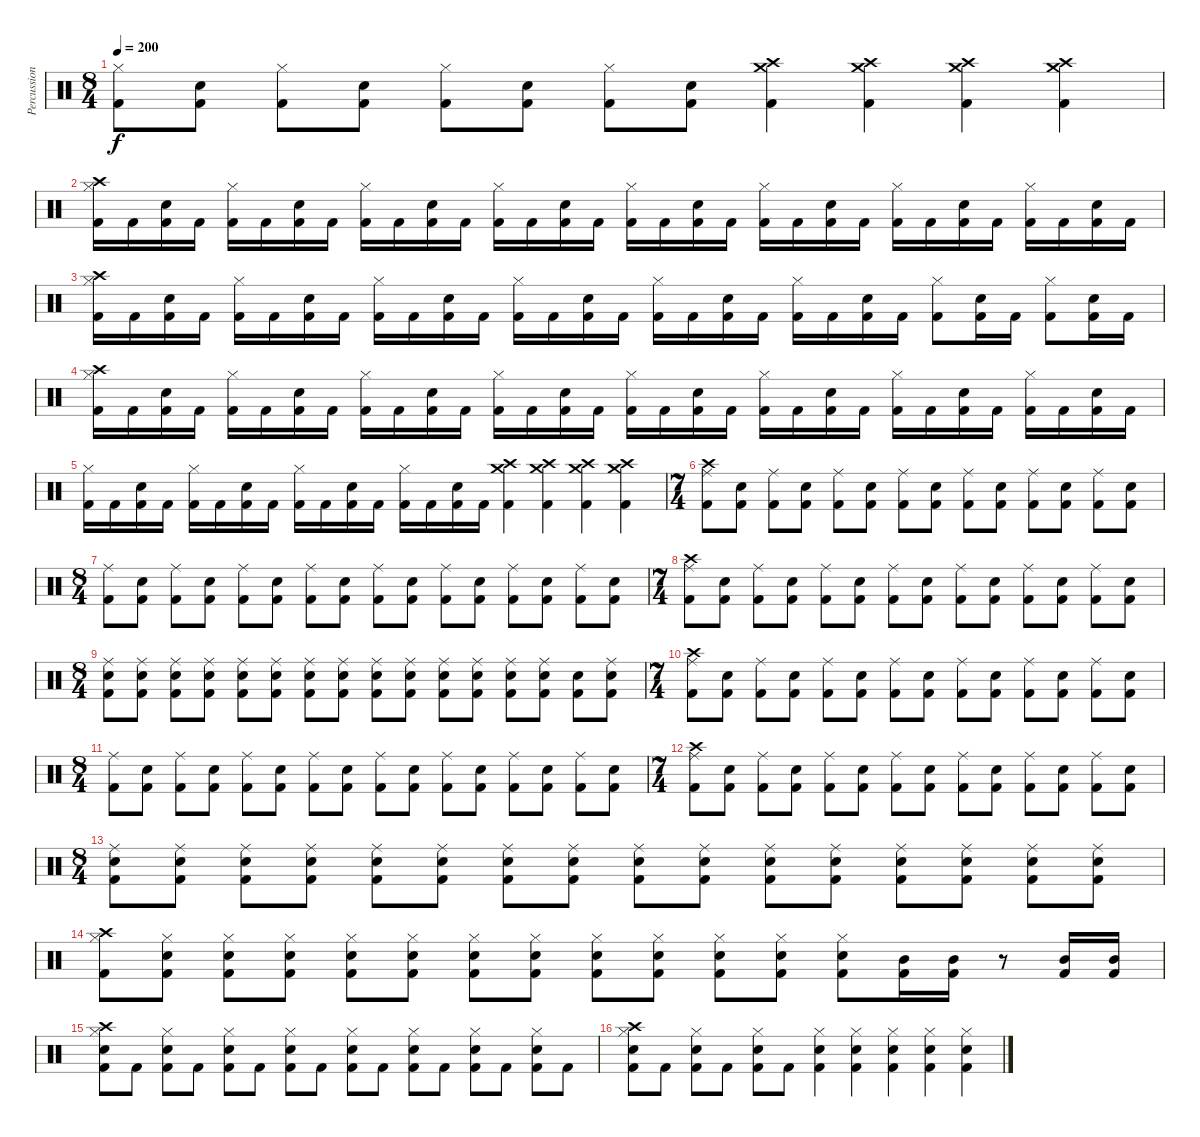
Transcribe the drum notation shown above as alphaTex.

\track ("Percussion" "Percussion") {instrument percussion}
\staff {score}
\articulation defaults
\ts (8 4)
\tempo 200
\clef neutral
\ks c
("Hi-Hat (closed)" "Kick (hit) 2").8{dy f} ("Electric Snare (hit)" "Kick (hit) 2").8 ("Hi-Hat (closed)" "Kick (hit) 2").8 ("Electric Snare (hit)" "Kick (hit) 2").8 ("Hi-Hat (closed)" "Kick (hit) 2").8 ("Electric Snare (hit)" "Kick (hit) 2").8 ("Hi-Hat (closed)" "Kick (hit) 2").8 ("Electric Snare (hit)" "Kick (hit) 2").8 ("Crash high (hit)" "Crash medium (hit)" "Kick (hit) 2").4 ("Crash high (hit)" "Crash medium (hit)" "Kick (hit) 2").4 ("Crash high (hit)" "Crash medium (hit)" "Kick (hit) 2").4 ("Crash high (hit)" "Crash medium (hit)" "Kick (hit) 2").4 |
("Crash high (hit)" "Hi-Hat (closed)" "Kick (hit) 2").16 "Kick (hit) 2".16 ("Electric Snare (hit)" "Kick (hit) 2").16 "Kick (hit) 2".16 ("Hi-Hat (closed)" "Kick (hit) 2").16 "Kick (hit) 2".16 ("Electric Snare (hit)" "Kick (hit) 2").16 "Kick (hit) 2".16 ("Hi-Hat (closed)" "Kick (hit) 2").16 "Kick (hit) 2".16 ("Electric Snare (hit)" "Kick (hit) 2").16 "Kick (hit) 2".16 ("Hi-Hat (closed)" "Kick (hit) 2").16 "Kick (hit) 2".16 ("Electric Snare (hit)" "Kick (hit) 2").16 "Kick (hit) 2".16 ("Hi-Hat (closed)" "Kick (hit) 2").16 "Kick (hit) 2".16 ("Electric Snare (hit)" "Kick (hit) 2").16 "Kick (hit) 2".16 ("Hi-Hat (closed)" "Kick (hit) 2").16 "Kick (hit) 2".16 ("Electric Snare (hit)" "Kick (hit) 2").16 "Kick (hit) 2".16 ("Hi-Hat (closed)" "Kick (hit) 2").16 "Kick (hit) 2".16 ("Electric Snare (hit)" "Kick (hit) 2").16 "Kick (hit) 2".16 ("Hi-Hat (closed)" "Kick (hit) 2").16 "Kick (hit) 2".16 ("Electric Snare (hit)" "Kick (hit) 2").16 "Kick (hit) 2".16 |
("Crash high (hit)" "Hi-Hat (closed)" "Kick (hit) 2").16 "Kick (hit) 2".16 ("Electric Snare (hit)" "Kick (hit) 2").16 "Kick (hit) 2".16 ("Hi-Hat (closed)" "Kick (hit) 2").16 "Kick (hit) 2".16 ("Electric Snare (hit)" "Kick (hit) 2").16 "Kick (hit) 2".16 ("Hi-Hat (closed)" "Kick (hit) 2").16 "Kick (hit) 2".16 ("Electric Snare (hit)" "Kick (hit) 2").16 "Kick (hit) 2".16 ("Hi-Hat (closed)" "Kick (hit) 2").16 "Kick (hit) 2".16 ("Electric Snare (hit)" "Kick (hit) 2").16 "Kick (hit) 2".16 ("Hi-Hat (closed)" "Kick (hit) 2").16 "Kick (hit) 2".16 ("Electric Snare (hit)" "Kick (hit) 2").16 "Kick (hit) 2".16 ("Hi-Hat (closed)" "Kick (hit) 2").16 "Kick (hit) 2".16 ("Electric Snare (hit)" "Kick (hit) 2").16 "Kick (hit) 2".16 ("Hi-Hat (closed)" "Kick (hit) 2").8 ("Electric Snare (hit)" "Kick (hit) 2").16 "Kick (hit) 2".16 ("Hi-Hat (closed)" "Kick (hit) 2").8 ("Electric Snare (hit)" "Kick (hit) 2").16 "Kick (hit) 2".16 |
("Crash high (hit)" "Hi-Hat (closed)" "Kick (hit) 2").16 "Kick (hit) 2".16 ("Electric Snare (hit)" "Kick (hit) 2").16 "Kick (hit) 2".16 ("Hi-Hat (closed)" "Kick (hit) 2").16 "Kick (hit) 2".16 ("Electric Snare (hit)" "Kick (hit) 2").16 "Kick (hit) 2".16 ("Hi-Hat (closed)" "Kick (hit) 2").16 "Kick (hit) 2".16 ("Electric Snare (hit)" "Kick (hit) 2").16 "Kick (hit) 2".16 ("Hi-Hat (closed)" "Kick (hit) 2").16 "Kick (hit) 2".16 ("Electric Snare (hit)" "Kick (hit) 2").16 "Kick (hit) 2".16 ("Hi-Hat (closed)" "Kick (hit) 2").16 "Kick (hit) 2".16 ("Electric Snare (hit)" "Kick (hit) 2").16 "Kick (hit) 2".16 ("Hi-Hat (closed)" "Kick (hit) 2").16 "Kick (hit) 2".16 ("Electric Snare (hit)" "Kick (hit) 2").16 "Kick (hit) 2".16 ("Hi-Hat (closed)" "Kick (hit) 2").16 "Kick (hit) 2".16 ("Electric Snare (hit)" "Kick (hit) 2").16 "Kick (hit) 2".16 ("Hi-Hat (closed)" "Kick (hit) 2").16 "Kick (hit) 2".16 ("Electric Snare (hit)" "Kick (hit) 2").16 "Kick (hit) 2".16 |
("Hi-Hat (closed)" "Kick (hit) 2").16 "Kick (hit) 2".16 ("Electric Snare (hit)" "Kick (hit) 2").16 "Kick (hit) 2".16 ("Hi-Hat (closed)" "Kick (hit) 2").16 "Kick (hit) 2".16 ("Electric Snare (hit)" "Kick (hit) 2").16 "Kick (hit) 2".16 ("Hi-Hat (closed)" "Kick (hit) 2").16 "Kick (hit) 2".16 ("Electric Snare (hit)" "Kick (hit) 2").16 "Kick (hit) 2".16 ("Hi-Hat (closed)" "Kick (hit) 2").16 "Kick (hit) 2".16 ("Electric Snare (hit)" "Kick (hit) 2").16 "Kick (hit) 2".16 ("Crash high (hit)" "Crash medium (hit)" "Kick (hit) 2").4 ("Crash high (hit)" "Crash medium (hit)" "Kick (hit) 2").4 ("Crash high (hit)" "Crash medium (hit)" "Kick (hit) 2").4 ("Crash high (hit)" "Crash medium (hit)" "Kick (hit) 2").4 |
\ts (7 4)
("Crash high (hit)" "Ride (middle)" "Kick (hit) 2").8 ("Electric Snare (hit)" "Kick (hit) 2").8 ("Ride (middle)" "Kick (hit) 2").8 ("Electric Snare (hit)" "Kick (hit) 2").8 ("Ride (middle)" "Kick (hit) 2").8 ("Electric Snare (hit)" "Kick (hit) 2").8 ("Ride (middle)" "Kick (hit) 2").8 ("Electric Snare (hit)" "Kick (hit) 2").8 ("Ride (middle)" "Kick (hit) 2").8 ("Electric Snare (hit)" "Kick (hit) 2").8 ("Ride (middle)" "Kick (hit) 2").8 ("Electric Snare (hit)" "Kick (hit) 2").8 ("Ride (middle)" "Kick (hit) 2").8 ("Electric Snare (hit)" "Kick (hit) 2").8 |
\ts (8 4)
("Ride (middle)" "Kick (hit) 2").8 ("Electric Snare (hit)" "Kick (hit) 2").8 ("Ride (middle)" "Kick (hit) 2").8 ("Electric Snare (hit)" "Kick (hit) 2").8 ("Ride (middle)" "Kick (hit) 2").8 ("Electric Snare (hit)" "Kick (hit) 2").8 ("Ride (middle)" "Kick (hit) 2").8 ("Electric Snare (hit)" "Kick (hit) 2").8 ("Ride (middle)" "Kick (hit) 2").8 ("Electric Snare (hit)" "Kick (hit) 2").8 ("Ride (middle)" "Kick (hit) 2").8 ("Electric Snare (hit)" "Kick (hit) 2").8 ("Ride (middle)" "Kick (hit) 2").8 ("Electric Snare (hit)" "Kick (hit) 2").8 ("Ride (middle)" "Kick (hit) 2").8 ("Electric Snare (hit)" "Kick (hit) 2").8 |
\ts (7 4)
("Crash high (hit)" "Ride (middle)" "Kick (hit) 2").8 ("Electric Snare (hit)" "Kick (hit) 2").8 ("Ride (middle)" "Kick (hit) 2").8 ("Electric Snare (hit)" "Kick (hit) 2").8 ("Ride (middle)" "Kick (hit) 2").8 ("Electric Snare (hit)" "Kick (hit) 2").8 ("Ride (middle)" "Kick (hit) 2").8 ("Electric Snare (hit)" "Kick (hit) 2").8 ("Ride (middle)" "Kick (hit) 2").8 ("Electric Snare (hit)" "Kick (hit) 2").8 ("Ride (middle)" "Kick (hit) 2").8 ("Electric Snare (hit)" "Kick (hit) 2").8 ("Ride (middle)" "Kick (hit) 2").8 ("Electric Snare (hit)" "Kick (hit) 2").8 |
\ts (8 4)
("Ride (middle)" "Electric Snare (hit)" "Kick (hit) 2").8 ("Ride (middle)" "Electric Snare (hit)" "Kick (hit) 2").8 ("Ride (middle)" "Electric Snare (hit)" "Kick (hit) 2").8 ("Ride (middle)" "Electric Snare (hit)" "Kick (hit) 2").8 ("Ride (middle)" "Electric Snare (hit)" "Kick (hit) 2").8 ("Ride (middle)" "Electric Snare (hit)" "Kick (hit) 2").8 ("Ride (middle)" "Electric Snare (hit)" "Kick (hit) 2").8 ("Ride (middle)" "Electric Snare (hit)" "Kick (hit) 2").8 ("Ride (middle)" "Electric Snare (hit)" "Kick (hit) 2").8 ("Ride (middle)" "Electric Snare (hit)" "Kick (hit) 2").8 ("Ride (middle)" "Electric Snare (hit)" "Kick (hit) 2").8 ("Ride (middle)" "Electric Snare (hit)" "Kick (hit) 2").8 ("Ride (middle)" "Electric Snare (hit)" "Kick (hit) 2").8 ("Ride (middle)" "Electric Snare (hit)" "Kick (hit) 2").8 ("Electric Snare (hit)" "Kick (hit) 2").8 ("Ride (middle)" "Electric Snare (hit)" "Kick (hit) 2").8 |
\ts (7 4)
("Crash high (hit)" "Ride (middle)" "Kick (hit) 2").8 ("Electric Snare (hit)" "Kick (hit) 2").8 ("Ride (middle)" "Kick (hit) 2").8 ("Electric Snare (hit)" "Kick (hit) 2").8 ("Ride (middle)" "Kick (hit) 2").8 ("Electric Snare (hit)" "Kick (hit) 2").8 ("Ride (middle)" "Kick (hit) 2").8 ("Electric Snare (hit)" "Kick (hit) 2").8 ("Ride (middle)" "Kick (hit) 2").8 ("Electric Snare (hit)" "Kick (hit) 2").8 ("Ride (middle)" "Kick (hit) 2").8 ("Electric Snare (hit)" "Kick (hit) 2").8 ("Ride (middle)" "Kick (hit) 2").8 ("Electric Snare (hit)" "Kick (hit) 2").8 |
\ts (8 4)
("Ride (middle)" "Kick (hit) 2").8 ("Electric Snare (hit)" "Kick (hit) 2").8 ("Ride (middle)" "Kick (hit) 2").8 ("Electric Snare (hit)" "Kick (hit) 2").8 ("Ride (middle)" "Kick (hit) 2").8 ("Electric Snare (hit)" "Kick (hit) 2").8 ("Ride (middle)" "Kick (hit) 2").8 ("Electric Snare (hit)" "Kick (hit) 2").8 ("Ride (middle)" "Kick (hit) 2").8 ("Electric Snare (hit)" "Kick (hit) 2").8 ("Ride (middle)" "Kick (hit) 2").8 ("Electric Snare (hit)" "Kick (hit) 2").8 ("Ride (middle)" "Kick (hit) 2").8 ("Electric Snare (hit)" "Kick (hit) 2").8 ("Ride (middle)" "Kick (hit) 2").8 ("Electric Snare (hit)" "Kick (hit) 2").8 |
\ts (7 4)
("Crash high (hit)" "Ride (middle)" "Kick (hit) 2").8 ("Electric Snare (hit)" "Kick (hit) 2").8 ("Ride (middle)" "Kick (hit) 2").8 ("Electric Snare (hit)" "Kick (hit) 2").8 ("Ride (middle)" "Kick (hit) 2").8 ("Electric Snare (hit)" "Kick (hit) 2").8 ("Ride (middle)" "Kick (hit) 2").8 ("Electric Snare (hit)" "Kick (hit) 2").8 ("Ride (middle)" "Kick (hit) 2").8 ("Electric Snare (hit)" "Kick (hit) 2").8 ("Ride (middle)" "Kick (hit) 2").8 ("Electric Snare (hit)" "Kick (hit) 2").8 ("Ride (middle)" "Kick (hit) 2").8 ("Electric Snare (hit)" "Kick (hit) 2").8 |
\ts (8 4)
("Ride (middle)" "Electric Snare (hit)" "Kick (hit) 2").8 ("Ride (middle)" "Electric Snare (hit)" "Kick (hit) 2").8 ("Ride (middle)" "Electric Snare (hit)" "Kick (hit) 2").8 ("Ride (middle)" "Electric Snare (hit)" "Kick (hit) 2").8 ("Ride (middle)" "Electric Snare (hit)" "Kick (hit) 2").8 ("Ride (middle)" "Electric Snare (hit)" "Kick (hit) 2").8 ("Ride (middle)" "Electric Snare (hit)" "Kick (hit) 2").8 ("Ride (middle)" "Electric Snare (hit)" "Kick (hit) 2").8 ("Ride (middle)" "Electric Snare (hit)" "Kick (hit) 2").8 ("Ride (middle)" "Electric Snare (hit)" "Kick (hit) 2").8 ("Ride (middle)" "Electric Snare (hit)" "Kick (hit) 2").8 ("Ride (middle)" "Electric Snare (hit)" "Kick (hit) 2").8 ("Ride (middle)" "Electric Snare (hit)" "Kick (hit) 2").8 ("Ride (middle)" "Electric Snare (hit)" "Kick (hit) 2").8 ("Ride (middle)" "Electric Snare (hit)" "Kick (hit) 2").8 ("Ride (middle)" "Electric Snare (hit)" "Kick (hit) 2").8 |
("Crash high (hit)" "Hi-Hat (closed)" "Kick (hit) 2").8 ("Hi-Hat (closed)" "Electric Snare (hit)" "Kick (hit) 2").8 ("Hi-Hat (closed)" "Electric Snare (hit)" "Kick (hit) 2").8 ("Hi-Hat (closed)" "Electric Snare (hit)" "Kick (hit) 2").8 ("Hi-Hat (closed)" "Electric Snare (hit)" "Kick (hit) 2").8 ("Hi-Hat (closed)" "Electric Snare (hit)" "Kick (hit) 2").8 ("Hi-Hat (closed)" "Electric Snare (hit)" "Kick (hit) 2").8 ("Hi-Hat (closed)" "Electric Snare (hit)" "Kick (hit) 2").8 ("Hi-Hat (closed)" "Electric Snare (hit)" "Kick (hit) 2").8 ("Hi-Hat (closed)" "Electric Snare (hit)" "Kick (hit) 2").8 ("Hi-Hat (closed)" "Electric Snare (hit)" "Kick (hit) 2").8 ("Hi-Hat (closed)" "Electric Snare (hit)" "Kick (hit) 2").8 ("Hi-Hat (closed)" "Electric Snare (hit)" "Kick (hit) 2").8 ("Mid Tom (hit)" "Kick (hit) 2").16 ("Mid Tom (hit)" "Kick (hit) 2").16 r.8 ("Mid Tom (hit)" "Kick (hit) 2").16 ("Mid Tom (hit)" "Kick (hit) 2").16 |
("Hi-Hat (closed)" "Crash high (hit)" "Electric Snare (hit)" "Kick (hit) 2").8 "Kick (hit) 2".8 ("Hi-Hat (closed)" "Electric Snare (hit)" "Kick (hit) 2").8 "Kick (hit) 2".8 ("Hi-Hat (closed)" "Electric Snare (hit)" "Kick (hit) 2").8 "Kick (hit) 2".8 ("Hi-Hat (closed)" "Electric Snare (hit)" "Kick (hit) 2").8 "Kick (hit) 2".8 ("Hi-Hat (closed)" "Electric Snare (hit)" "Kick (hit) 2").8 "Kick (hit) 2".8 ("Hi-Hat (closed)" "Electric Snare (hit)" "Kick (hit) 2").8 "Kick (hit) 2".8 ("Hi-Hat (closed)" "Electric Snare (hit)" "Kick (hit) 2").8 "Kick (hit) 2".8 ("Hi-Hat (closed)" "Electric Snare (hit)" "Kick (hit) 2").8 "Kick (hit) 2".8 |
("Hi-Hat (closed)" "Crash high (hit)" "Electric Snare (hit)" "Kick (hit) 2").8 "Kick (hit) 2".8 ("Hi-Hat (closed)" "Electric Snare (hit)" "Kick (hit) 2").8 "Kick (hit) 2".8 ("Hi-Hat (closed)" "Electric Snare (hit)" "Kick (hit) 2").8 "Kick (hit) 2".8 ("Hi-Hat (closed)" "Electric Snare (hit)" "Kick (hit) 2").4 ("Hi-Hat (closed)" "Electric Snare (hit)" "Kick (hit) 2").4 ("Hi-Hat (closed)" "Electric Snare (hit)" "Kick (hit) 2").4 ("Hi-Hat (closed)" "Electric Snare (hit)" "Kick (hit) 2").4 ("Hi-Hat (closed)" "Electric Snare (hit)" "Kick (hit) 2").4
